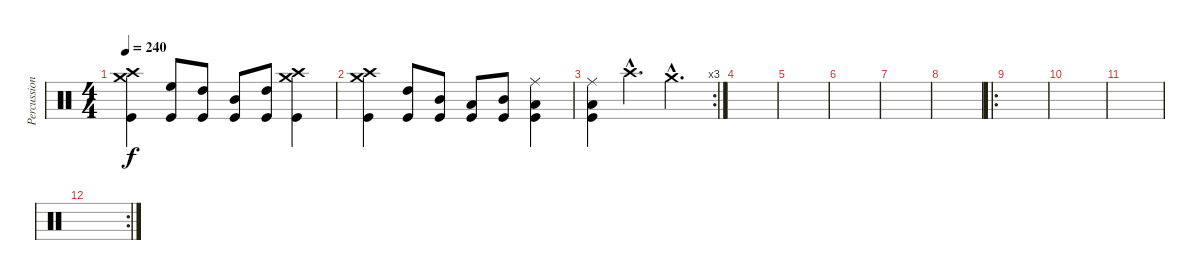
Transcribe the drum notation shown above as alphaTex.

\track ("Percussion" "Percussion") {instrument percussion}
\staff {score}
\articulation defaults
\ts (4 4)
\tempo 240
\clef neutral
\ks c
("Crash medium (hit)" "Crash high (hit)" "Kick (hit)").4{dy f} ("High Floor Tom (hit)" "Kick (hit)").8 ("High Tom (hit)" "Kick (hit)").8 ("Mid Tom (hit)" "Kick (hit)").8 ("High Tom (hit)" "Kick (hit)").8 ("Crash medium (hit)" "Crash high (hit)" "Kick (hit)").4 |
("Crash medium (hit)" "Crash high (hit)" "Kick (hit)").4 ("High Tom (hit)" "Kick (hit)").8 ("Mid Tom (hit)" "Kick (hit)").8 ("Low Tom (hit)" "Kick (hit)").8 ("Mid Tom (hit)" "Kick (hit)").8 ("Ride (middle)" "Low Tom (hit)" "Kick (hit)").4 |
\rc 3
("Ride (middle)" "Low Tom (hit)" "Kick (hit)").4 "Crash high (hit)"{hac}.4{d} "Crash medium (hit)"{hac}.4{d} |
|
|
|
|
|
\ro
|
|
|
\rc 2
